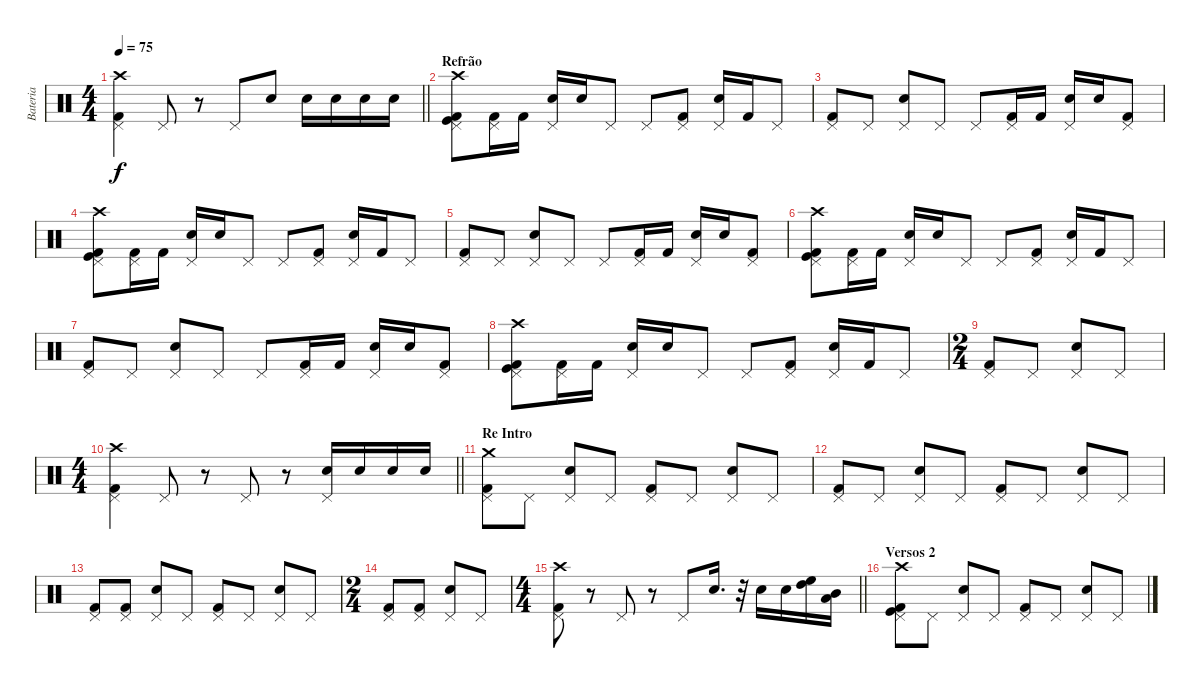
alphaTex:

\track ("Bateria" "Bateria") {instrument percussion}
\staff {score}
\articulation defaults
\ts (4 4)
\tempo 75
\clef neutral
\barLineRight lightlight
\ks c
("Crash high (hit)" "Kick (hit) 2" "Pedal Hi-Hat (hit)").4{dy f} "Pedal Hi-Hat (hit)".8 r.8 "Pedal Hi-Hat (hit)".8 "Snare (hit) 2".8 "Snare (hit) 2".16 "Snare (hit) 2".16 "Snare (hit) 2".16 "Snare (hit) 2".16 |
\section ("" "Refrão")
("Kick (hit)" "Crash high (hit)" "Kick (hit) 2" "Pedal Hi-Hat (hit)").8 ("Kick (hit) 2" "Pedal Hi-Hat (hit)").16 "Kick (hit) 2".16 ("Snare (hit) 2" "Pedal Hi-Hat (hit)").16 "Snare (hit) 2".16 "Pedal Hi-Hat (hit)".8 "Pedal Hi-Hat (hit)".8 ("Pedal Hi-Hat (hit)" "Kick (hit) 2").8 ("Pedal Hi-Hat (hit)" "Snare (hit) 2").16 "Kick (hit) 2".16 "Pedal Hi-Hat (hit)".8 |
("Pedal Hi-Hat (hit)" "Kick (hit) 2").8 "Pedal Hi-Hat (hit)".8 ("Snare (hit) 2" "Pedal Hi-Hat (hit)").8 "Pedal Hi-Hat (hit)".8 "Pedal Hi-Hat (hit)".8 ("Pedal Hi-Hat (hit)" "Kick (hit) 2").16 "Kick (hit) 2".16 ("Pedal Hi-Hat (hit)" "Snare (hit) 2").16 "Snare (hit) 2".16 ("Kick (hit) 2" "Pedal Hi-Hat (hit)").8 |
("Crash high (hit)" "Kick (hit) 2" "Pedal Hi-Hat (hit)" "Kick (hit)").8 ("Kick (hit) 2" "Pedal Hi-Hat (hit)").16 "Kick (hit) 2".16 ("Snare (hit) 2" "Pedal Hi-Hat (hit)").16 "Snare (hit) 2".16 "Pedal Hi-Hat (hit)".8 "Pedal Hi-Hat (hit)".8 ("Kick (hit) 2" "Pedal Hi-Hat (hit)").8 ("Pedal Hi-Hat (hit)" "Snare (hit) 2").16 "Kick (hit) 2".16 "Pedal Hi-Hat (hit)".8 |
("Kick (hit) 2" "Pedal Hi-Hat (hit)").8 "Pedal Hi-Hat (hit)".8 ("Pedal Hi-Hat (hit)" "Snare (hit) 2").8 "Pedal Hi-Hat (hit)".8 "Pedal Hi-Hat (hit)".8 ("Pedal Hi-Hat (hit)" "Kick (hit) 2").16 "Kick (hit) 2".16 ("Pedal Hi-Hat (hit)" "Snare (hit) 2").16 "Snare (hit) 2".16 ("Pedal Hi-Hat (hit)" "Kick (hit) 2").8 |
("Crash high (hit)" "Kick (hit)" "Kick (hit) 2" "Pedal Hi-Hat (hit)").8 ("Kick (hit) 2" "Pedal Hi-Hat (hit)").16 "Kick (hit) 2".16 ("Snare (hit) 2" "Pedal Hi-Hat (hit)").16 "Snare (hit) 2".16 "Pedal Hi-Hat (hit)".8 "Pedal Hi-Hat (hit)".8 ("Pedal Hi-Hat (hit)" "Kick (hit) 2").8 ("Pedal Hi-Hat (hit)" "Snare (hit) 2").16 "Kick (hit) 2".16 "Pedal Hi-Hat (hit)".8 |
("Kick (hit) 2" "Pedal Hi-Hat (hit)").8 "Pedal Hi-Hat (hit)".8 ("Pedal Hi-Hat (hit)" "Snare (hit) 2").8 "Pedal Hi-Hat (hit)".8 "Pedal Hi-Hat (hit)".8 ("Pedal Hi-Hat (hit)" "Kick (hit) 2").16 "Kick (hit) 2".16 ("Pedal Hi-Hat (hit)" "Snare (hit) 2").16 "Snare (hit) 2".16 ("Kick (hit) 2" "Pedal Hi-Hat (hit)").8 |
("Crash high (hit)" "Kick (hit)" "Kick (hit) 2" "Pedal Hi-Hat (hit)").8 ("Kick (hit) 2" "Pedal Hi-Hat (hit)").16 "Kick (hit) 2".16 ("Snare (hit) 2" "Pedal Hi-Hat (hit)").16 "Snare (hit) 2".16 "Pedal Hi-Hat (hit)".8 "Pedal Hi-Hat (hit)".8 ("Kick (hit) 2" "Pedal Hi-Hat (hit)").8 ("Pedal Hi-Hat (hit)" "Snare (hit) 2").16 "Kick (hit) 2".16 "Pedal Hi-Hat (hit)".8 |
\ts (2 4)
("Pedal Hi-Hat (hit)" "Kick (hit) 2").8 "Pedal Hi-Hat (hit)".8 ("Snare (hit) 2" "Pedal Hi-Hat (hit)").8 "Pedal Hi-Hat (hit)".8 |
\ts (4 4)
\barLineRight lightlight
("Kick (hit) 2" "Crash high (hit)" "Pedal Hi-Hat (hit)").4 "Pedal Hi-Hat (hit)".8 r.8 "Pedal Hi-Hat (hit)".8 r.8 ("Pedal Hi-Hat (hit)" "Snare (hit) 2").16 "Snare (hit) 2".16 "Snare (hit) 2".16 "Snare (hit) 2".16 |
\section ("" "Re Intro")
("Kick (hit) 2" "Crash medium (hit)" "Pedal Hi-Hat (hit)").8 "Pedal Hi-Hat (hit)".8 ("Snare (hit) 2" "Pedal Hi-Hat (hit)").8 "Pedal Hi-Hat (hit)".8 ("Kick (hit) 2" "Pedal Hi-Hat (hit)").8 "Pedal Hi-Hat (hit)".8 ("Pedal Hi-Hat (hit)" "Snare (hit) 2").8 "Pedal Hi-Hat (hit)".8 |
("Pedal Hi-Hat (hit)" "Kick (hit) 2").8 "Pedal Hi-Hat (hit)".8 ("Snare (hit) 2" "Pedal Hi-Hat (hit)").8 "Pedal Hi-Hat (hit)".8 ("Pedal Hi-Hat (hit)" "Kick (hit) 2").8 "Pedal Hi-Hat (hit)".8 ("Pedal Hi-Hat (hit)" "Snare (hit) 2").8 "Pedal Hi-Hat (hit)".8 |
("Pedal Hi-Hat (hit)" "Kick (hit) 2").8 ("Kick (hit) 2" "Pedal Hi-Hat (hit)").8 ("Pedal Hi-Hat (hit)" "Snare (hit) 2").8 "Pedal Hi-Hat (hit)".8 ("Kick (hit) 2" "Pedal Hi-Hat (hit)").8 "Pedal Hi-Hat (hit)".8 ("Pedal Hi-Hat (hit)" "Snare (hit) 2").8 "Pedal Hi-Hat (hit)".8 |
\ts (2 4)
("Pedal Hi-Hat (hit)" "Kick (hit) 2").8 ("Kick (hit) 2" "Pedal Hi-Hat (hit)").8 ("Pedal Hi-Hat (hit)" "Snare (hit) 2").8 "Pedal Hi-Hat (hit)".8 |
\ts (4 4)
\barLineRight lightlight
("Pedal Hi-Hat (hit)" "Kick (hit) 2" "Crash high (hit)").8 r.8 "Pedal Hi-Hat (hit)".8 r.8 "Pedal Hi-Hat (hit)".8 "Snare (hit) 2".16{d} r.32 "Snare (hit) 2".16 "Snare (hit) 2".16 ("High Tom (hit)" "High Floor Tom (hit)").16 ("Mid Tom (hit)" "Low Tom (hit)").16 |
\section ("" "Versos 2")
("Kick (hit)" "Crash high (hit)" "Kick (hit) 2" "Pedal Hi-Hat (hit)").8 "Pedal Hi-Hat (hit)".8 ("Snare (hit) 2" "Pedal Hi-Hat (hit)").8 "Pedal Hi-Hat (hit)".8 ("Kick (hit) 2" "Pedal Hi-Hat (hit)").8 "Pedal Hi-Hat (hit)".8 ("Pedal Hi-Hat (hit)" "Snare (hit) 2").8 "Pedal Hi-Hat (hit)".8
